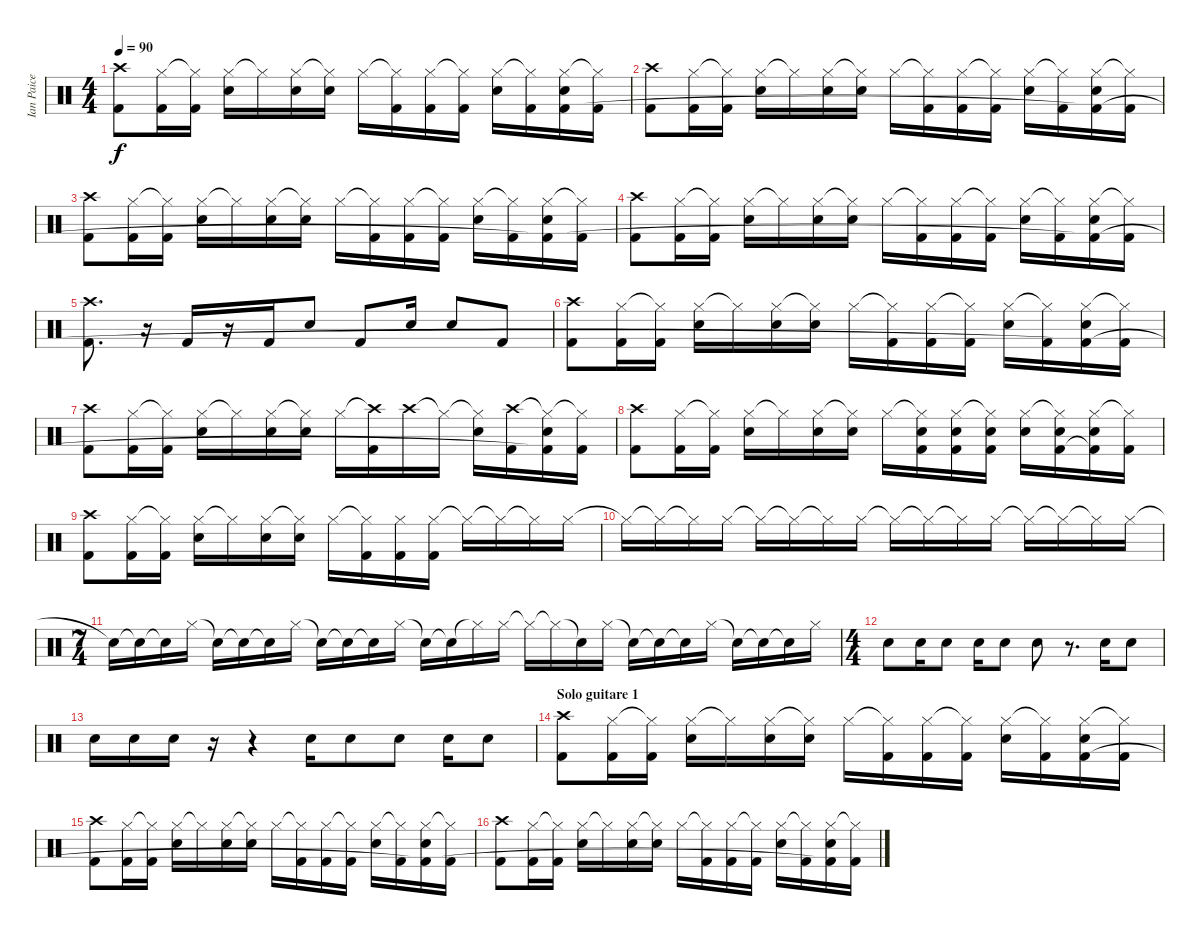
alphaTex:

\track ("Ian Paice" "Ian Paice") {instrument percussion}
\staff {score}
\articulation defaults
\ts (4 4)
\tempo 90
\clef neutral
\ks c
("Crash high (hit)" "Kick (hit) 2").8{dy f} ("Hi-Hat (closed)" "Kick (hit) 2").16 ("Hi-Hat (closed)"{t} "Kick (hit) 2").16 ("Hi-Hat (closed)" "Snare (hit) 2").16 "Hi-Hat (closed)"{t}.16 ("Hi-Hat (closed)" "Snare (hit) 2").16 ("Hi-Hat (closed)"{t} "Snare (hit) 2").16 "Hi-Hat (closed)".16 ("Hi-Hat (closed)"{t} "Kick (hit) 2").16 ("Hi-Hat (closed)" "Kick (hit) 2").16 ("Hi-Hat (closed)"{t} "Kick (hit) 2").16 ("Hi-Hat (closed)" "Snare (hit) 2").16 ("Hi-Hat (closed)"{t} "Kick (hit) 2").16 ("Hi-Hat (closed)" "Snare (hit) 2" "Kick (hit) 2"{t}).16 ("Hi-Hat (closed)"{t} "Kick (hit) 2").16 |
("Crash high (hit)" "Kick (hit) 2").8 ("Hi-Hat (closed)" "Kick (hit) 2").16 ("Hi-Hat (closed)"{t} "Kick (hit) 2").16 ("Hi-Hat (closed)" "Snare (hit) 2").16 "Hi-Hat (closed)"{t}.16 ("Hi-Hat (closed)" "Snare (hit) 2").16 ("Hi-Hat (closed)"{t} "Snare (hit) 2").16 "Hi-Hat (closed)".16 ("Hi-Hat (closed)"{t} "Kick (hit) 2").16 ("Hi-Hat (closed)" "Kick (hit) 2").16 ("Hi-Hat (closed)"{t} "Kick (hit) 2").16 ("Hi-Hat (closed)" "Snare (hit) 2").16 ("Hi-Hat (closed)"{t} "Kick (hit) 2").16 ("Hi-Hat (closed)" "Snare (hit) 2" "Kick (hit) 2"{t}).16 ("Hi-Hat (closed)"{t} "Kick (hit) 2").16 |
("Crash high (hit)" "Kick (hit) 2").8 ("Hi-Hat (closed)" "Kick (hit) 2").16 ("Hi-Hat (closed)"{t} "Kick (hit) 2").16 ("Hi-Hat (closed)" "Snare (hit) 2").16 "Hi-Hat (closed)"{t}.16 ("Hi-Hat (closed)" "Snare (hit) 2").16 ("Hi-Hat (closed)"{t} "Snare (hit) 2").16 "Hi-Hat (closed)".16 ("Hi-Hat (closed)"{t} "Kick (hit) 2").16 ("Hi-Hat (closed)" "Kick (hit) 2").16 ("Hi-Hat (closed)"{t} "Kick (hit) 2").16 ("Hi-Hat (closed)" "Snare (hit) 2").16 ("Hi-Hat (closed)"{t} "Kick (hit) 2").16 ("Hi-Hat (closed)" "Snare (hit) 2" "Kick (hit) 2"{t}).16 ("Hi-Hat (closed)"{t} "Kick (hit) 2").16 |
("Crash high (hit)" "Kick (hit) 2").8 ("Hi-Hat (closed)" "Kick (hit) 2").16 ("Hi-Hat (closed)"{t} "Kick (hit) 2").16 ("Hi-Hat (closed)" "Snare (hit) 2").16 "Hi-Hat (closed)"{t}.16 ("Hi-Hat (closed)" "Snare (hit) 2").16 ("Hi-Hat (closed)"{t} "Snare (hit) 2").16 "Hi-Hat (closed)".16 ("Hi-Hat (closed)"{t} "Kick (hit) 2").16 ("Hi-Hat (closed)" "Kick (hit) 2").16 ("Hi-Hat (closed)"{t} "Kick (hit) 2").16 ("Hi-Hat (closed)" "Snare (hit) 2").16 ("Hi-Hat (closed)"{t} "Kick (hit) 2").16 ("Hi-Hat (closed)" "Snare (hit) 2" "Kick (hit) 2"{t}).16 ("Hi-Hat (closed)"{t} "Kick (hit) 2").16 |
("Crash high (hit)" "Kick (hit) 2").8{d} r.16 "Kick (hit) 2".16 r.16 "Kick (hit) 2".16 "Snare (hit) 2".8 "Kick (hit) 2".8 "Snare (hit) 2".16 "Snare (hit) 2".8 "Kick (hit) 2".8 |
("Crash high (hit)" "Kick (hit) 2").8 ("Hi-Hat (closed)" "Kick (hit) 2").16 ("Hi-Hat (closed)"{t} "Kick (hit) 2").16 ("Hi-Hat (closed)" "Snare (hit) 2").16 "Hi-Hat (closed)"{t}.16 ("Hi-Hat (closed)" "Snare (hit) 2").16 ("Hi-Hat (closed)"{t} "Snare (hit) 2").16 "Hi-Hat (closed)".16 ("Hi-Hat (closed)"{t} "Kick (hit) 2").16 ("Hi-Hat (closed)" "Kick (hit) 2").16 ("Hi-Hat (closed)"{t} "Kick (hit) 2").16 ("Hi-Hat (closed)" "Snare (hit) 2").16 ("Hi-Hat (closed)"{t} "Kick (hit) 2").16 ("Hi-Hat (closed)" "Snare (hit) 2" "Kick (hit) 2"{t}).16 ("Hi-Hat (closed)"{t} "Kick (hit) 2").16 |
("Crash high (hit)" "Kick (hit) 2").8 ("Hi-Hat (closed)" "Kick (hit) 2").16 ("Hi-Hat (closed)"{t} "Kick (hit) 2").16 ("Hi-Hat (closed)" "Snare (hit) 2").16 "Hi-Hat (closed)"{t}.16 ("Hi-Hat (closed)" "Snare (hit) 2").16 ("Hi-Hat (closed)"{t} "Snare (hit) 2").16 "Hi-Hat (closed)".16 ("Crash high (hit)"{t} "Kick (hit) 2").16 "Crash high (hit)".16 "Hi-Hat (closed)"{t}.16 ("Hi-Hat (closed)"{t} "Snare (hit) 2").16 ("Crash high (hit)" "Kick (hit) 2").16 ("Hi-Hat (closed)"{t} "Snare (hit) 2" "Kick (hit) 2"{t}).16 ("Hi-Hat (closed)"{t} "Kick (hit) 2").16 |
("Crash high (hit)" "Kick (hit) 2").8 ("Hi-Hat (closed)" "Kick (hit) 2").16 ("Hi-Hat (closed)"{t} "Kick (hit) 2").16 ("Hi-Hat (closed)" "Snare (hit) 2").16 "Hi-Hat (closed)"{t}.16 ("Hi-Hat (closed)" "Snare (hit) 2").16 ("Hi-Hat (closed)"{t} "Snare (hit) 2").16 "Hi-Hat (closed)".16 ("Hi-Hat (closed)"{t} "Snare (hit) 2" "Kick (hit) 2").16 ("Hi-Hat (closed)" "Snare (hit) 2" "Kick (hit) 2").16 ("Hi-Hat (closed)"{t} "Snare (hit) 2" "Kick (hit) 2").16 ("Hi-Hat (closed)" "Snare (hit) 2").16 ("Hi-Hat (closed)"{t} "Snare (hit) 2" "Kick (hit) 2").16 ("Hi-Hat (closed)" "Snare (hit) 2" "Kick (hit) 2"{t}).16 ("Hi-Hat (closed)"{t} "Kick (hit) 2").16 |
("Crash high (hit)" "Kick (hit) 2").8 ("Hi-Hat (closed)" "Kick (hit) 2").16 ("Hi-Hat (closed)"{t} "Kick (hit) 2").16 ("Hi-Hat (closed)" "Snare (hit) 2").16 "Hi-Hat (closed)"{t}.16 ("Hi-Hat (closed)" "Snare (hit) 2").16 ("Hi-Hat (closed)"{t} "Snare (hit) 2").16 "Hi-Hat (closed)".16 ("Hi-Hat (closed)"{t} "Kick (hit) 2").16 ("Hi-Hat (closed)" "Kick (hit) 2").16 ("Hi-Hat (closed)" "Kick (hit) 2").16 "Hi-Hat (closed)"{t}.16 "Hi-Hat (closed)"{t}.16 "Hi-Hat (closed)"{t}.16 "Hi-Hat (closed)".16 |
"Hi-Hat (closed)"{t}.16 "Hi-Hat (closed)"{t}.16 "Hi-Hat (closed)"{t}.16 "Hi-Hat (closed)".16 "Hi-Hat (closed)"{t}.16 "Hi-Hat (closed)"{t}.16 "Hi-Hat (closed)"{t}.16 "Hi-Hat (closed)".16 "Hi-Hat (closed)"{t}.16 "Hi-Hat (closed)"{t}.16 "Hi-Hat (closed)"{t}.16 "Hi-Hat (closed)".16 "Hi-Hat (closed)"{t}.16 "Hi-Hat (closed)"{t}.16 "Hi-Hat (closed)"{t}.16 "Hi-Hat (closed)".16 |
\ts (7 4)
"Snare (hit)"{t}.16 "Snare (hit)"{t}.16 "Snare (hit)"{t}.16 "Hi-Hat (closed)".16 "Snare (hit)"{t}.16 "Snare (hit)"{t}.16 "Snare (hit)"{t}.16 "Hi-Hat (closed)".16 "Snare (hit)"{t}.16 "Snare (hit)"{t}.16 "Snare (hit)"{t}.16 "Hi-Hat (closed)".16 "Snare (hit)"{t}.16 "Snare (hit)"{t}.16 "Hi-Hat (closed)"{t}.16 "Hi-Hat (closed)".16 "Hi-Hat (closed)"{t}.16 "Hi-Hat (closed)"{t}.16 "Snare (hit)"{t}.16 "Hi-Hat (closed)".16 "Snare (hit)"{t}.16 "Snare (hit)"{t}.16 "Snare (hit)"{t}.16 "Hi-Hat (closed)".16 "Snare (hit)"{t}.16 "Snare (hit)"{t}.16 "Snare (hit)"{t}.16 "Hi-Hat (closed)".16 |
\ts (4 4)
"Snare (hit) 2".8 "Snare (hit) 2".16 "Snare (hit) 2".8 "Snare (hit) 2".16 "Snare (hit) 2".8 "Snare (hit) 2".8 r.8{d} "Snare (hit) 2".16 "Snare (hit) 2".8 |
"Snare (hit) 2".16 "Snare (hit) 2".16 "Snare (hit) 2".16 r.16 r.4 "Snare (hit) 2".16 "Snare (hit) 2".8 "Snare (hit) 2".8 "Snare (hit) 2".16 "Snare (hit) 2".8 |
\section ("" "Solo guitare 1")
("Crash high (hit)" "Kick (hit) 2").8 ("Hi-Hat (closed)" "Kick (hit) 2").16 ("Hi-Hat (closed)"{t} "Kick (hit) 2").16 ("Hi-Hat (closed)" "Snare (hit) 2").16 "Hi-Hat (closed)"{t}.16 ("Hi-Hat (closed)" "Snare (hit) 2").16 ("Hi-Hat (closed)"{t} "Snare (hit) 2").16 "Hi-Hat (closed)".16 ("Hi-Hat (closed)"{t} "Kick (hit) 2").16 ("Hi-Hat (closed)" "Kick (hit) 2").16 ("Hi-Hat (closed)"{t} "Kick (hit) 2").16 ("Hi-Hat (closed)" "Snare (hit) 2").16 ("Hi-Hat (closed)"{t} "Kick (hit) 2").16 ("Hi-Hat (closed)" "Snare (hit) 2" "Kick (hit) 2").16 ("Hi-Hat (closed)"{t} "Kick (hit) 2").16 |
("Crash high (hit)" "Kick (hit) 2").8 ("Hi-Hat (closed)" "Kick (hit) 2").16 ("Hi-Hat (closed)"{t} "Kick (hit) 2").16 ("Hi-Hat (closed)" "Snare (hit) 2").16 "Hi-Hat (closed)"{t}.16 ("Hi-Hat (closed)" "Snare (hit) 2").16 ("Hi-Hat (closed)"{t} "Snare (hit) 2").16 "Hi-Hat (closed)".16 ("Hi-Hat (closed)"{t} "Kick (hit) 2").16 ("Hi-Hat (closed)" "Kick (hit) 2").16 ("Hi-Hat (closed)"{t} "Kick (hit) 2").16 ("Hi-Hat (closed)" "Snare (hit) 2").16 ("Hi-Hat (closed)"{t} "Kick (hit) 2").16 ("Hi-Hat (closed)" "Snare (hit) 2" "Kick (hit) 2"{t}).16 ("Hi-Hat (closed)"{t} "Kick (hit) 2").16 |
("Crash high (hit)" "Kick (hit) 2").8 ("Hi-Hat (closed)" "Kick (hit) 2").16 ("Hi-Hat (closed)"{t} "Kick (hit) 2").16 ("Hi-Hat (closed)" "Snare (hit) 2").16 "Hi-Hat (closed)"{t}.16 ("Hi-Hat (closed)" "Snare (hit) 2").16 ("Hi-Hat (closed)"{t} "Snare (hit) 2").16 "Hi-Hat (closed)".16 ("Hi-Hat (closed)"{t} "Kick (hit) 2").16 ("Hi-Hat (closed)" "Kick (hit) 2").16 ("Hi-Hat (closed)"{t} "Kick (hit) 2").16 ("Hi-Hat (closed)" "Snare (hit) 2").16 ("Hi-Hat (closed)"{t} "Kick (hit) 2").16 ("Hi-Hat (closed)" "Snare (hit) 2" "Kick (hit) 2"{t}).16 ("Hi-Hat (closed)"{t} "Kick (hit) 2").16
